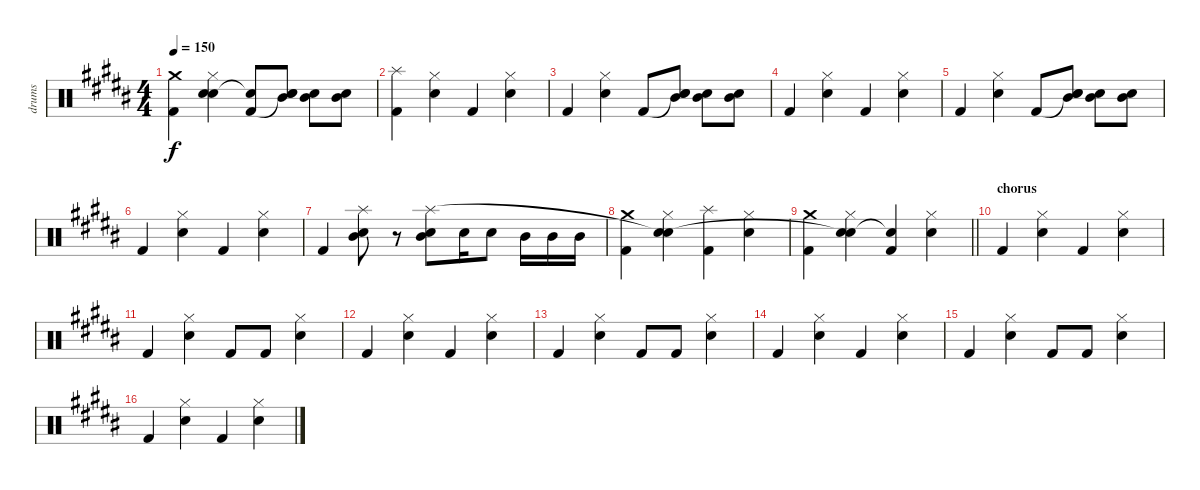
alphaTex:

\track ("drums" "drums") {instrument percussion}
\staff {score}
\articulation defaults
\ts (4 4)
\tempo 150
\clef neutral
\ks b
("Kick (hit) 2" "Crash medium (hit)").4{dy f} ("Hi-Hat (closed)" "Electric Snare (hit)" "Snare (hit)"{t}).4 ("Kick (hit) 2" "Snare (hit)"{t}).8 ("Snare (hit)"{t} "Electric Snare (hit)" "Mid Tom (hit)").8 ("Mid Tom (hit)" "Electric Snare (hit)").8 ("Mid Tom (hit)" "Electric Snare (hit)").8 |
("Kick (hit) 2" "Splash (hit)").4 ("Hi-Hat (closed)" "Electric Snare (hit)").4 "Kick (hit) 2".4 ("Hi-Hat (closed)" "Electric Snare (hit)").4 |
"Kick (hit) 2".4 ("Hi-Hat (closed)" "Electric Snare (hit)").4 "Kick (hit) 2".8 ("Snare (hit)"{t} "Electric Snare (hit)" "Mid Tom (hit)").8 ("Mid Tom (hit)" "Electric Snare (hit)").8 ("Mid Tom (hit)" "Electric Snare (hit)").8 |
"Kick (hit) 2".4 ("Hi-Hat (closed)" "Electric Snare (hit)").4 "Kick (hit) 2".4 ("Hi-Hat (closed)" "Electric Snare (hit)").4 |
"Kick (hit) 2".4 ("Hi-Hat (closed)" "Electric Snare (hit)").4 "Kick (hit) 2".8 ("Snare (hit)"{t} "Electric Snare (hit)" "Mid Tom (hit)").8 ("Mid Tom (hit)" "Electric Snare (hit)").8 ("Mid Tom (hit)" "Electric Snare (hit)").8 |
"Kick (hit) 2".4 ("Hi-Hat (closed)" "Electric Snare (hit)").4 "Kick (hit) 2".4 ("Hi-Hat (closed)" "Electric Snare (hit)").4 |
"Kick (hit) 2".4 ("Mid Tom (hit)" "Electric Snare (hit)" "Splash (hit)").8 r.8 ("Mid Tom (hit)" "Electric Snare (hit)" "Splash (hit)").8 "Electric Snare (hit)".16 "Electric Snare (hit)".8 "Mid Tom (hit)".16 "Mid Tom (hit)".16 "Mid Tom (hit)".16 |
("Kick (hit) 2" "Crash medium (hit)").4 ("Hi-Hat (closed)" "Electric Snare (hit)" "Snare (hit)"{t}).4 ("Kick (hit) 2" "Splash (hit)").4 ("Hi-Hat (closed)" "Electric Snare (hit)").4 |
\barLineRight lightlight
("Kick (hit) 2" "Crash medium (hit)").4 ("Hi-Hat (closed)" "Electric Snare (hit)" "Snare (hit)"{t}).4 ("Kick (hit) 2" "Snare (hit)"{t}).4 ("Hi-Hat (closed)" "Electric Snare (hit)").4 |
\section ("" "chorus")
"Kick (hit) 2".4 ("Hi-Hat (closed)" "Electric Snare (hit)").4 "Kick (hit) 2".4 ("Hi-Hat (closed)" "Electric Snare (hit)").4 |
"Kick (hit) 2".4 ("Hi-Hat (closed)" "Electric Snare (hit)").4 "Kick (hit) 2".8 "Kick (hit) 2".8 ("Hi-Hat (closed)" "Electric Snare (hit)").4 |
"Kick (hit) 2".4 ("Hi-Hat (closed)" "Electric Snare (hit)").4 "Kick (hit) 2".4 ("Hi-Hat (closed)" "Electric Snare (hit)").4 |
"Kick (hit) 2".4 ("Hi-Hat (closed)" "Electric Snare (hit)").4 "Kick (hit) 2".8 "Kick (hit) 2".8 ("Hi-Hat (closed)" "Electric Snare (hit)").4 |
"Kick (hit) 2".4 ("Hi-Hat (closed)" "Electric Snare (hit)").4 "Kick (hit) 2".4 ("Hi-Hat (closed)" "Electric Snare (hit)").4 |
"Kick (hit) 2".4 ("Hi-Hat (closed)" "Electric Snare (hit)").4 "Kick (hit) 2".8 "Kick (hit) 2".8 ("Hi-Hat (closed)" "Electric Snare (hit)").4 |
"Kick (hit) 2".4 ("Hi-Hat (closed)" "Electric Snare (hit)").4 "Kick (hit) 2".4 ("Hi-Hat (closed)" "Electric Snare (hit)").4
